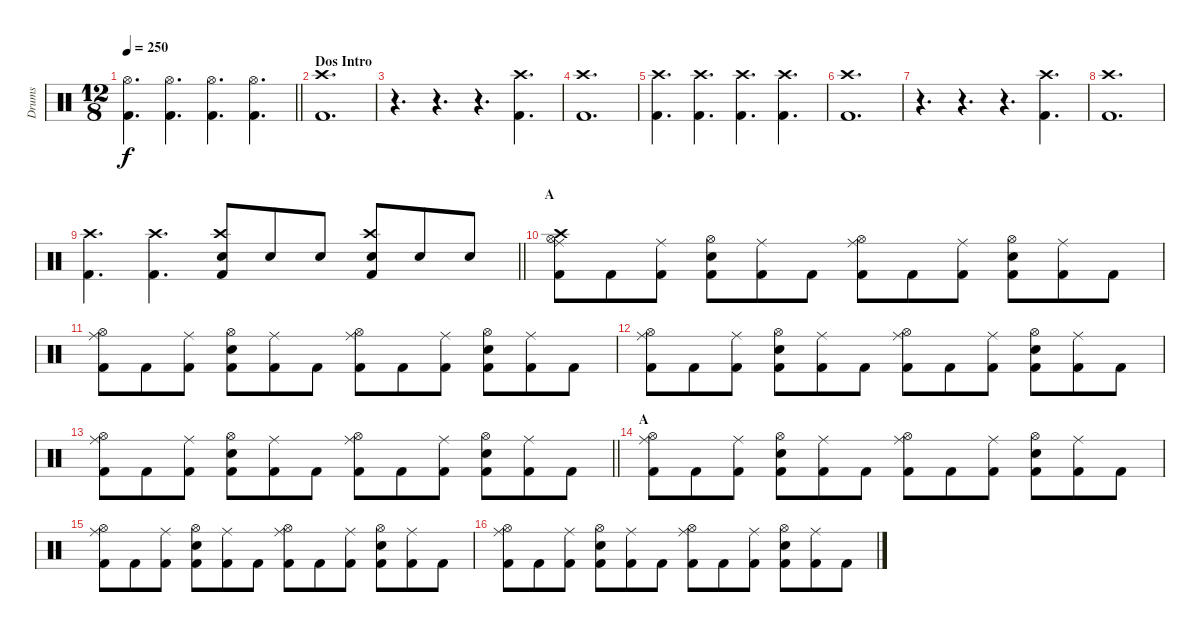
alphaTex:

\track ("Drums" "Drums") {instrument percussion}
\staff {score}
\articulation defaults
\ts (12 8)
\tempo 250
\clef neutral
\barLineRight lightlight
\ks c
("Hi-Hat (open)" "Kick (hit) 2").4{d dy f} ("Hi-Hat (open)" "Kick (hit) 2").4{d} ("Hi-Hat (open)" "Kick (hit) 2").4{d} ("Hi-Hat (open)" "Kick (hit) 2").4{d} |
\section ("" "Dos Intro")
("Crash high (hit)" "Kick (hit) 2").1{d} |
r.4{d} r.4{d} r.4{d} ("Crash high (hit)" "Kick (hit) 2").4{d} |
("Crash high (hit)" "Kick (hit) 2").1{d} |
("Crash high (hit)" "Kick (hit) 2").4{d} ("Crash high (hit)" "Kick (hit) 2").4{d} ("Crash high (hit)" "Kick (hit) 2").4{d} ("Crash high (hit)" "Kick (hit) 2").4{d} |
("Crash high (hit)" "Kick (hit) 2").1{d} |
r.4{d} r.4{d} r.4{d} ("Crash high (hit)" "Kick (hit) 2").4{d} |
("Crash high (hit)" "Kick (hit) 2").1{d} |
\barLineRight lightlight
("Crash high (hit)" "Kick (hit) 2").4{d} ("Crash high (hit)" "Kick (hit) 2").4{d} ("Crash high (hit)" "Snare (hit) 2" "Kick (hit) 2").8 "Snare (hit) 2".8 "Snare (hit) 2".8 ("Crash high (hit)" "Snare (hit) 2" "Kick (hit) 2").8 "Snare (hit) 2".8 "Snare (hit) 2".8 |
\section ("" "A")
("Ride (middle)" "Hi-Hat (open)" "Crash high (hit)" "Kick (hit) 2").8 "Kick (hit) 2".8 ("Ride (middle)" "Kick (hit) 2").8 ("Hi-Hat (open)" "Snare (hit) 2" "Kick (hit) 2").8 ("Ride (middle)" "Kick (hit) 2").8 "Kick (hit) 2".8 ("Ride (middle)" "Hi-Hat (open)" "Kick (hit) 2").8 "Kick (hit) 2".8 ("Ride (middle)" "Kick (hit) 2").8 ("Hi-Hat (open)" "Snare (hit) 2" "Kick (hit) 2").8 ("Ride (middle)" "Kick (hit) 2").8 "Kick (hit) 2".8 |
("Ride (middle)" "Hi-Hat (open)" "Kick (hit) 2").8 "Kick (hit) 2".8 ("Ride (middle)" "Kick (hit) 2").8 ("Hi-Hat (open)" "Snare (hit) 2" "Kick (hit) 2").8 ("Ride (middle)" "Kick (hit) 2").8 "Kick (hit) 2".8 ("Ride (middle)" "Hi-Hat (open)" "Kick (hit) 2").8 "Kick (hit) 2".8 ("Ride (middle)" "Kick (hit) 2").8 ("Hi-Hat (open)" "Snare (hit) 2" "Kick (hit) 2").8 ("Ride (middle)" "Kick (hit) 2").8 "Kick (hit) 2".8 |
("Ride (middle)" "Hi-Hat (open)" "Kick (hit) 2").8 "Kick (hit) 2".8 ("Ride (middle)" "Kick (hit) 2").8 ("Hi-Hat (open)" "Snare (hit) 2" "Kick (hit) 2").8 ("Ride (middle)" "Kick (hit) 2").8 "Kick (hit) 2".8 ("Ride (middle)" "Hi-Hat (open)" "Kick (hit) 2").8 "Kick (hit) 2".8 ("Ride (middle)" "Kick (hit) 2").8 ("Hi-Hat (open)" "Snare (hit) 2" "Kick (hit) 2").8 ("Ride (middle)" "Kick (hit) 2").8 "Kick (hit) 2".8 |
\barLineRight lightlight
("Ride (middle)" "Hi-Hat (open)" "Kick (hit) 2").8 "Kick (hit) 2".8 ("Ride (middle)" "Kick (hit) 2").8 ("Hi-Hat (open)" "Snare (hit) 2" "Kick (hit) 2").8 ("Ride (middle)" "Kick (hit) 2").8 "Kick (hit) 2".8 ("Ride (middle)" "Hi-Hat (open)" "Kick (hit) 2").8 "Kick (hit) 2".8 ("Ride (middle)" "Kick (hit) 2").8 ("Hi-Hat (open)" "Snare (hit) 2" "Kick (hit) 2").8 ("Ride (middle)" "Kick (hit) 2").8 "Kick (hit) 2".8 |
\section ("" "A")
("Ride (middle)" "Hi-Hat (open)" "Kick (hit) 2").8 "Kick (hit) 2".8 ("Ride (middle)" "Kick (hit) 2").8 ("Hi-Hat (open)" "Snare (hit) 2" "Kick (hit) 2").8 ("Ride (middle)" "Kick (hit) 2").8 "Kick (hit) 2".8 ("Ride (middle)" "Hi-Hat (open)" "Kick (hit) 2").8 "Kick (hit) 2".8 ("Ride (middle)" "Kick (hit) 2").8 ("Hi-Hat (open)" "Snare (hit) 2" "Kick (hit) 2").8 ("Ride (middle)" "Kick (hit) 2").8 "Kick (hit) 2".8 |
("Ride (middle)" "Hi-Hat (open)" "Kick (hit) 2").8 "Kick (hit) 2".8 ("Ride (middle)" "Kick (hit) 2").8 ("Hi-Hat (open)" "Snare (hit) 2" "Kick (hit) 2").8 ("Ride (middle)" "Kick (hit) 2").8 "Kick (hit) 2".8 ("Ride (middle)" "Hi-Hat (open)" "Kick (hit) 2").8 "Kick (hit) 2".8 ("Ride (middle)" "Kick (hit) 2").8 ("Hi-Hat (open)" "Snare (hit) 2" "Kick (hit) 2").8 ("Ride (middle)" "Kick (hit) 2").8 "Kick (hit) 2".8 |
("Ride (middle)" "Hi-Hat (open)" "Kick (hit) 2").8 "Kick (hit) 2".8 ("Ride (middle)" "Kick (hit) 2").8 ("Hi-Hat (open)" "Snare (hit) 2" "Kick (hit) 2").8 ("Ride (middle)" "Kick (hit) 2").8 "Kick (hit) 2".8 ("Ride (middle)" "Hi-Hat (open)" "Kick (hit) 2").8 "Kick (hit) 2".8 ("Ride (middle)" "Kick (hit) 2").8 ("Hi-Hat (open)" "Snare (hit) 2" "Kick (hit) 2").8 ("Ride (middle)" "Kick (hit) 2").8 "Kick (hit) 2".8
